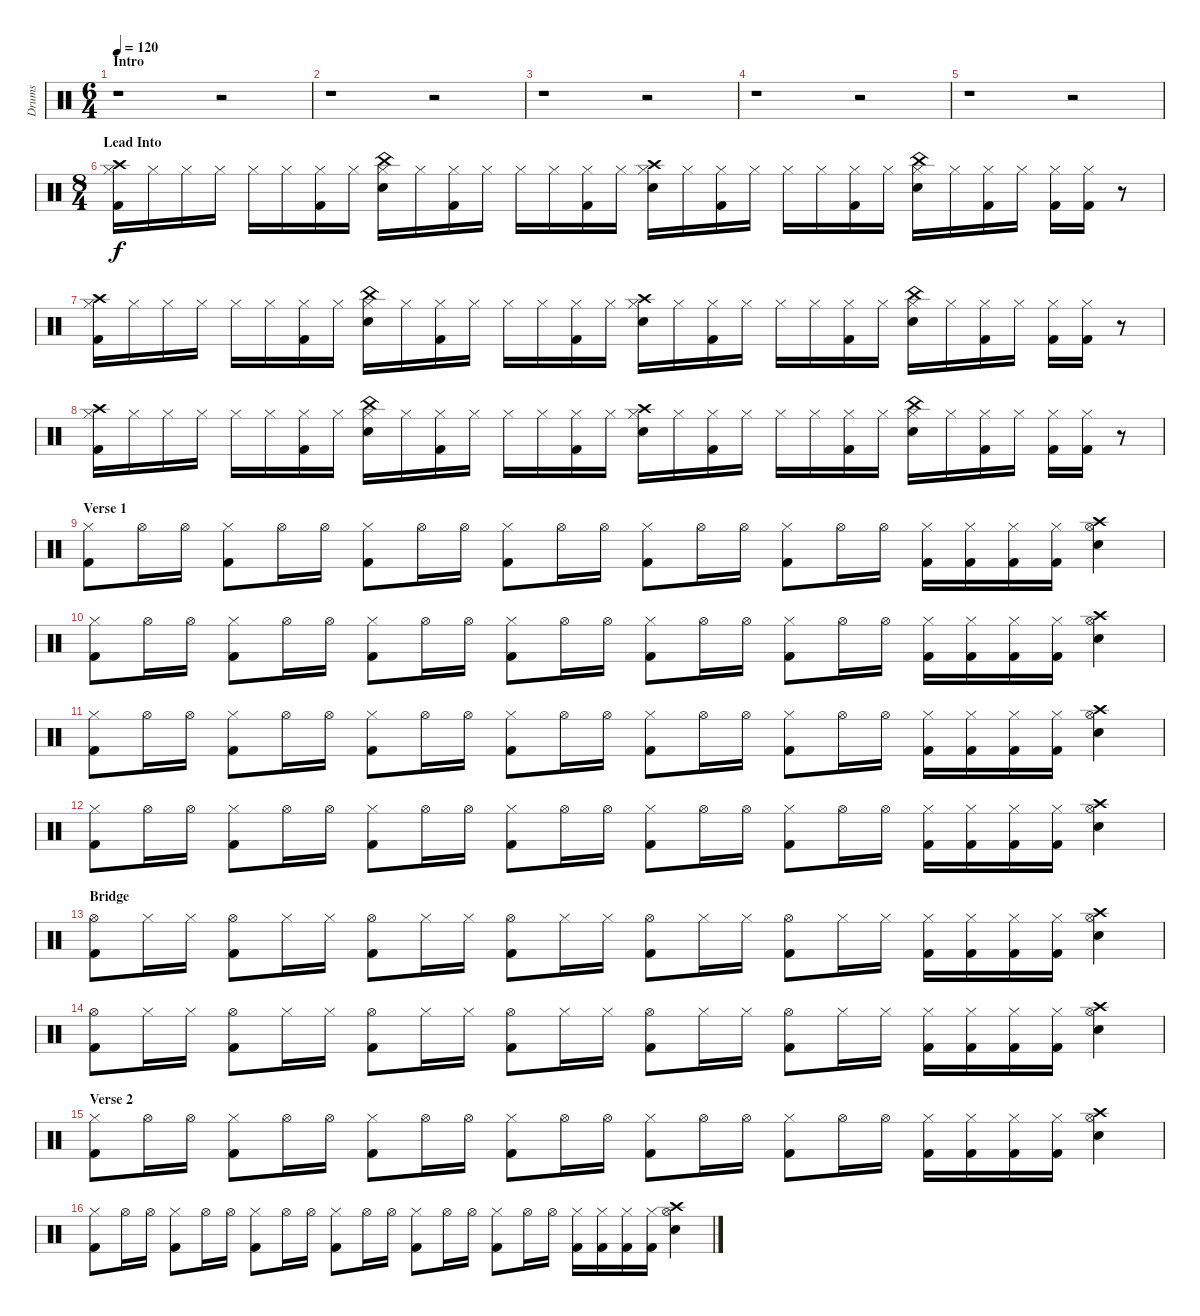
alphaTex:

\track ("Drums" "Drums") {instrument percussion}
\staff {score}
\articulation defaults
\ts (6 4)
\section ("" "Intro")
\tempo 120
\clef neutral
\ks c
r.1{dy f} r.2 |
r.1 r.2 |
r.1 r.2 |
r.1 r.2 |
r.1 r.2 |
\ts (8 4)
\section ("" "Lead Into")
("Crash high (hit)" "Hi-Hat (closed)" "Kick (hit) 2").16 "Hi-Hat (closed)".16 "Hi-Hat (closed)".16 "Hi-Hat (closed)".16 "Hi-Hat (closed)".16 "Hi-Hat (closed)".16 ("Hi-Hat (closed)" "Kick (hit) 2").16 "Hi-Hat (closed)".16 ("China (hit)" "Hi-Hat (closed)" "Snare (hit) 2").16 "Hi-Hat (closed)".16 ("Hi-Hat (closed)" "Kick (hit) 2").16 "Hi-Hat (closed)".16 "Hi-Hat (closed)".16 "Hi-Hat (closed)".16 ("Hi-Hat (closed)" "Kick (hit) 2").16 "Hi-Hat (closed)".16 ("Crash high (hit)" "Hi-Hat (closed)" "Snare (hit) 2").16 "Hi-Hat (closed)".16 ("Hi-Hat (closed)" "Kick (hit) 2").16 "Hi-Hat (closed)".16 "Hi-Hat (closed)".16 "Hi-Hat (closed)".16 ("Hi-Hat (closed)" "Kick (hit) 2").16 "Hi-Hat (closed)".16 ("China (hit)" "Hi-Hat (closed)" "Snare (hit) 2").16 "Hi-Hat (closed)".16 ("Hi-Hat (closed)" "Kick (hit) 2").16 "Hi-Hat (closed)".16 ("Hi-Hat (closed)" "Kick (hit) 2").16 ("Hi-Hat (closed)" "Kick (hit) 2").16 r.8 |
("Crash high (hit)" "Hi-Hat (closed)" "Kick (hit) 2").16 "Hi-Hat (closed)".16 "Hi-Hat (closed)".16 "Hi-Hat (closed)".16 "Hi-Hat (closed)".16 "Hi-Hat (closed)".16 ("Hi-Hat (closed)" "Kick (hit) 2").16 "Hi-Hat (closed)".16 ("China (hit)" "Hi-Hat (closed)" "Snare (hit) 2").16 "Hi-Hat (closed)".16 ("Hi-Hat (closed)" "Kick (hit) 2").16 "Hi-Hat (closed)".16 "Hi-Hat (closed)".16 "Hi-Hat (closed)".16 ("Hi-Hat (closed)" "Kick (hit) 2").16 "Hi-Hat (closed)".16 ("Crash high (hit)" "Hi-Hat (closed)" "Snare (hit) 2").16 "Hi-Hat (closed)".16 ("Hi-Hat (closed)" "Kick (hit) 2").16 "Hi-Hat (closed)".16 "Hi-Hat (closed)".16 "Hi-Hat (closed)".16 ("Hi-Hat (closed)" "Kick (hit) 2").16 "Hi-Hat (closed)".16 ("China (hit)" "Hi-Hat (closed)" "Snare (hit) 2").16 "Hi-Hat (closed)".16 ("Hi-Hat (closed)" "Kick (hit) 2").16 "Hi-Hat (closed)".16 ("Hi-Hat (closed)" "Kick (hit) 2").16 ("Hi-Hat (closed)" "Kick (hit) 2").16 r.8 |
("Crash high (hit)" "Hi-Hat (closed)" "Kick (hit) 2").16 "Hi-Hat (closed)".16 "Hi-Hat (closed)".16 "Hi-Hat (closed)".16 "Hi-Hat (closed)".16 "Hi-Hat (closed)".16 ("Hi-Hat (closed)" "Kick (hit) 2").16 "Hi-Hat (closed)".16 ("China (hit)" "Hi-Hat (closed)" "Snare (hit) 2").16 "Hi-Hat (closed)".16 ("Hi-Hat (closed)" "Kick (hit) 2").16 "Hi-Hat (closed)".16 "Hi-Hat (closed)".16 "Hi-Hat (closed)".16 ("Hi-Hat (closed)" "Kick (hit) 2").16 "Hi-Hat (closed)".16 ("Crash high (hit)" "Hi-Hat (closed)" "Snare (hit) 2").16 "Hi-Hat (closed)".16 ("Hi-Hat (closed)" "Kick (hit) 2").16 "Hi-Hat (closed)".16 "Hi-Hat (closed)".16 "Hi-Hat (closed)".16 ("Hi-Hat (closed)" "Kick (hit) 2").16 "Hi-Hat (closed)".16 ("China (hit)" "Hi-Hat (closed)" "Snare (hit) 2").16 "Hi-Hat (closed)".16 ("Hi-Hat (closed)" "Kick (hit) 2").16 "Hi-Hat (closed)".16 ("Hi-Hat (closed)" "Kick (hit) 2").16 ("Hi-Hat (closed)" "Kick (hit) 2").16 r.8 |
\section ("" "Verse 1")
("Hi-Hat (closed)" "Kick (hit) 2").8 "Hi-Hat (open)".16 "Hi-Hat (open)".16 ("Hi-Hat (closed)" "Kick (hit) 2").8 "Hi-Hat (open)".16 "Hi-Hat (open)".16 ("Hi-Hat (closed)" "Kick (hit) 2").8 "Hi-Hat (open)".16 "Hi-Hat (open)".16 ("Hi-Hat (closed)" "Kick (hit) 2").8 "Hi-Hat (open)".16 "Hi-Hat (open)".16 ("Hi-Hat (closed)" "Kick (hit) 2").8 "Hi-Hat (open)".16 "Hi-Hat (open)".16 ("Hi-Hat (closed)" "Kick (hit) 2").8 "Hi-Hat (open)".16 "Hi-Hat (open)".16 ("Hi-Hat (closed)" "Kick (hit) 2").16 ("Hi-Hat (closed)" "Kick (hit) 2").16 ("Hi-Hat (closed)" "Kick (hit) 2").16 ("Hi-Hat (closed)" "Kick (hit) 2").16 ("Crash high (hit)" "Hi-Hat (open)" "Snare (hit) 2").4 |
("Hi-Hat (closed)" "Kick (hit) 2").8 "Hi-Hat (open)".16 "Hi-Hat (open)".16 ("Hi-Hat (closed)" "Kick (hit) 2").8 "Hi-Hat (open)".16 "Hi-Hat (open)".16 ("Hi-Hat (closed)" "Kick (hit) 2").8 "Hi-Hat (open)".16 "Hi-Hat (open)".16 ("Hi-Hat (closed)" "Kick (hit) 2").8 "Hi-Hat (open)".16 "Hi-Hat (open)".16 ("Hi-Hat (closed)" "Kick (hit) 2").8 "Hi-Hat (open)".16 "Hi-Hat (open)".16 ("Hi-Hat (closed)" "Kick (hit) 2").8 "Hi-Hat (open)".16 "Hi-Hat (open)".16 ("Hi-Hat (closed)" "Kick (hit) 2").16 ("Hi-Hat (closed)" "Kick (hit) 2").16 ("Hi-Hat (closed)" "Kick (hit) 2").16 ("Hi-Hat (closed)" "Kick (hit) 2").16 ("Crash high (hit)" "Hi-Hat (open)" "Snare (hit) 2").4 |
("Hi-Hat (closed)" "Kick (hit) 2").8 "Hi-Hat (open)".16 "Hi-Hat (open)".16 ("Hi-Hat (closed)" "Kick (hit) 2").8 "Hi-Hat (open)".16 "Hi-Hat (open)".16 ("Hi-Hat (closed)" "Kick (hit) 2").8 "Hi-Hat (open)".16 "Hi-Hat (open)".16 ("Hi-Hat (closed)" "Kick (hit) 2").8 "Hi-Hat (open)".16 "Hi-Hat (open)".16 ("Hi-Hat (closed)" "Kick (hit) 2").8 "Hi-Hat (open)".16 "Hi-Hat (open)".16 ("Hi-Hat (closed)" "Kick (hit) 2").8 "Hi-Hat (open)".16 "Hi-Hat (open)".16 ("Hi-Hat (closed)" "Kick (hit) 2").16 ("Hi-Hat (closed)" "Kick (hit) 2").16 ("Hi-Hat (closed)" "Kick (hit) 2").16 ("Hi-Hat (closed)" "Kick (hit) 2").16 ("Crash high (hit)" "Hi-Hat (open)" "Snare (hit) 2").4 |
("Hi-Hat (closed)" "Kick (hit) 2").8 "Hi-Hat (open)".16 "Hi-Hat (open)".16 ("Hi-Hat (closed)" "Kick (hit) 2").8 "Hi-Hat (open)".16 "Hi-Hat (open)".16 ("Hi-Hat (closed)" "Kick (hit) 2").8 "Hi-Hat (open)".16 "Hi-Hat (open)".16 ("Hi-Hat (closed)" "Kick (hit) 2").8 "Hi-Hat (open)".16 "Hi-Hat (open)".16 ("Hi-Hat (closed)" "Kick (hit) 2").8 "Hi-Hat (open)".16 "Hi-Hat (open)".16 ("Hi-Hat (closed)" "Kick (hit) 2").8 "Hi-Hat (open)".16 "Hi-Hat (open)".16 ("Hi-Hat (closed)" "Kick (hit) 2").16 ("Hi-Hat (closed)" "Kick (hit) 2").16 ("Hi-Hat (closed)" "Kick (hit) 2").16 ("Hi-Hat (closed)" "Kick (hit) 2").16 ("Crash high (hit)" "Hi-Hat (open)" "Snare (hit) 2").4 |
\section ("" "Bridge")
("Hi-Hat (open)" "Kick (hit) 2").8 "Hi-Hat (closed)".16 "Hi-Hat (closed)".16 ("Hi-Hat (open)" "Kick (hit) 2").8 "Hi-Hat (closed)".16 "Hi-Hat (closed)".16 ("Hi-Hat (open)" "Kick (hit) 2").8 "Hi-Hat (closed)".16 "Hi-Hat (closed)".16 ("Hi-Hat (open)" "Kick (hit) 2").8 "Hi-Hat (closed)".16 "Hi-Hat (closed)".16 ("Hi-Hat (open)" "Kick (hit) 2").8 "Hi-Hat (closed)".16 "Hi-Hat (closed)".16 ("Hi-Hat (open)" "Kick (hit) 2").8 "Hi-Hat (closed)".16 "Hi-Hat (closed)".16 ("Hi-Hat (closed)" "Kick (hit) 2").16 ("Hi-Hat (closed)" "Kick (hit) 2").16 ("Hi-Hat (closed)" "Kick (hit) 2").16 ("Hi-Hat (closed)" "Kick (hit) 2").16 ("Crash high (hit)" "Hi-Hat (open)" "Snare (hit) 2").4 |
("Hi-Hat (open)" "Kick (hit) 2").8 "Hi-Hat (closed)".16 "Hi-Hat (closed)".16 ("Hi-Hat (open)" "Kick (hit) 2").8 "Hi-Hat (closed)".16 "Hi-Hat (closed)".16 ("Hi-Hat (open)" "Kick (hit) 2").8 "Hi-Hat (closed)".16 "Hi-Hat (closed)".16 ("Hi-Hat (open)" "Kick (hit) 2").8 "Hi-Hat (closed)".16 "Hi-Hat (closed)".16 ("Hi-Hat (open)" "Kick (hit) 2").8 "Hi-Hat (closed)".16 "Hi-Hat (closed)".16 ("Hi-Hat (open)" "Kick (hit) 2").8 "Hi-Hat (closed)".16 "Hi-Hat (closed)".16 ("Hi-Hat (closed)" "Kick (hit) 2").16 ("Hi-Hat (closed)" "Kick (hit) 2").16 ("Hi-Hat (closed)" "Kick (hit) 2").16 ("Hi-Hat (closed)" "Kick (hit) 2").16 ("Crash high (hit)" "Hi-Hat (open)" "Snare (hit) 2").4 |
\section ("" "Verse 2")
("Hi-Hat (closed)" "Kick (hit) 2").8 "Hi-Hat (open)".16 "Hi-Hat (open)".16 ("Hi-Hat (closed)" "Kick (hit) 2").8 "Hi-Hat (open)".16 "Hi-Hat (open)".16 ("Hi-Hat (closed)" "Kick (hit) 2").8 "Hi-Hat (open)".16 "Hi-Hat (open)".16 ("Hi-Hat (closed)" "Kick (hit) 2").8 "Hi-Hat (open)".16 "Hi-Hat (open)".16 ("Hi-Hat (closed)" "Kick (hit) 2").8 "Hi-Hat (open)".16 "Hi-Hat (open)".16 ("Hi-Hat (closed)" "Kick (hit) 2").8 "Hi-Hat (open)".16 "Hi-Hat (open)".16 ("Hi-Hat (closed)" "Kick (hit) 2").16 ("Hi-Hat (closed)" "Kick (hit) 2").16 ("Hi-Hat (closed)" "Kick (hit) 2").16 ("Hi-Hat (closed)" "Kick (hit) 2").16 ("Crash high (hit)" "Hi-Hat (open)" "Snare (hit) 2").4 |
("Hi-Hat (closed)" "Kick (hit) 2").8 "Hi-Hat (open)".16 "Hi-Hat (open)".16 ("Hi-Hat (closed)" "Kick (hit) 2").8 "Hi-Hat (open)".16 "Hi-Hat (open)".16 ("Hi-Hat (closed)" "Kick (hit) 2").8 "Hi-Hat (open)".16 "Hi-Hat (open)".16 ("Hi-Hat (closed)" "Kick (hit) 2").8 "Hi-Hat (open)".16 "Hi-Hat (open)".16 ("Hi-Hat (closed)" "Kick (hit) 2").8 "Hi-Hat (open)".16 "Hi-Hat (open)".16 ("Hi-Hat (closed)" "Kick (hit) 2").8 "Hi-Hat (open)".16 "Hi-Hat (open)".16 ("Hi-Hat (closed)" "Kick (hit) 2").16 ("Hi-Hat (closed)" "Kick (hit) 2").16 ("Hi-Hat (closed)" "Kick (hit) 2").16 ("Hi-Hat (closed)" "Kick (hit) 2").16 ("Crash high (hit)" "Hi-Hat (open)" "Snare (hit) 2").4
